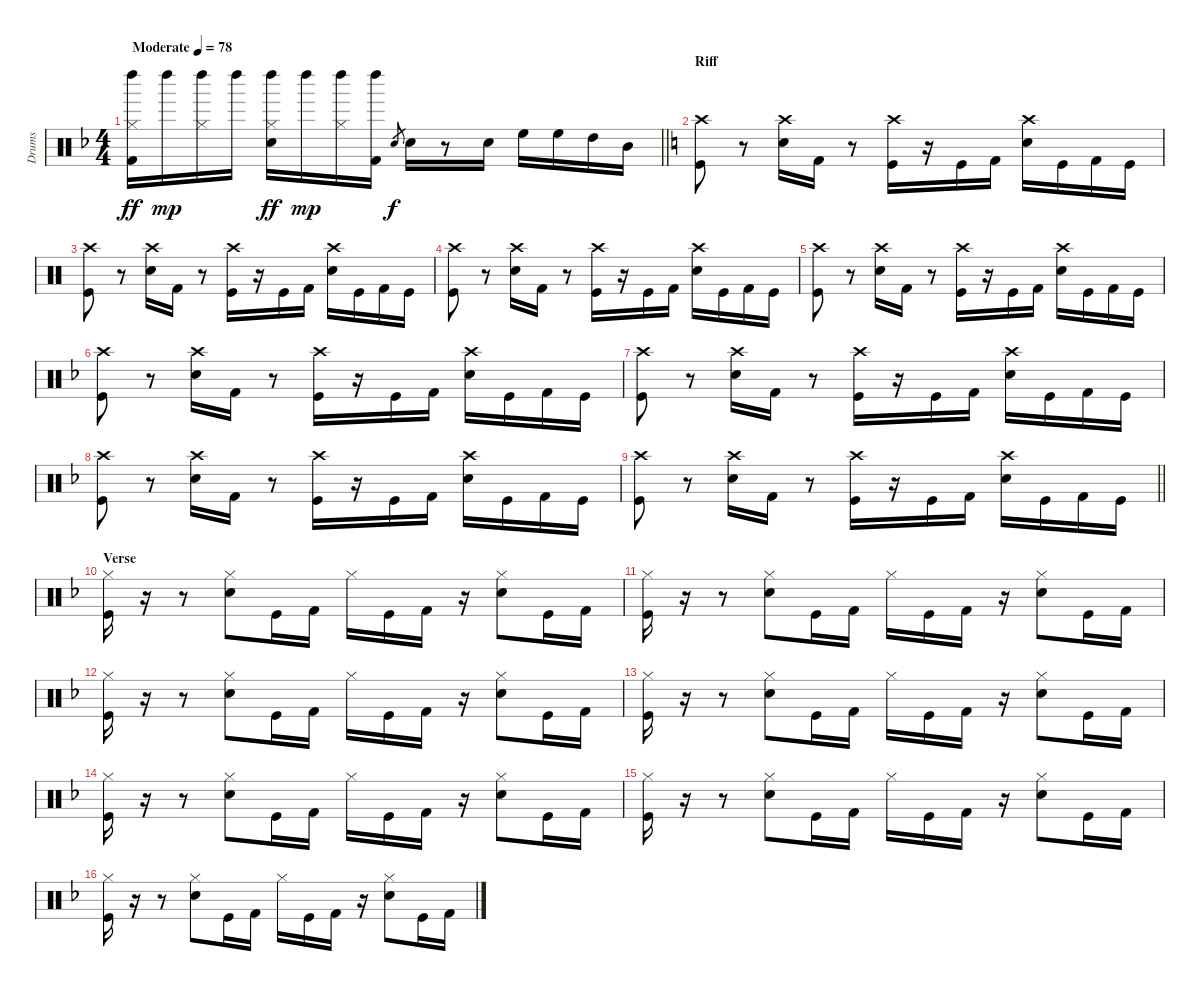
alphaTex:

\track ("Drums" "Drums") {instrument percussion}
\staff {score}
\articulation defaults
\ts (4 4)
\tempo (78 "Moderate")
\clef neutral
\barLineRight lightlight
\ks f
("Kick (hit) 2" "Hi-Hat (closed)" "Left Maraca (hit)").16{dy ff} "Left Maraca (hit)".16{dy mp} ("Hi-Hat (closed)" "Left Maraca (hit)").16 "Left Maraca (hit)".16 ("Snare (hit) 2" "Hi-Hat (closed)" "Left Maraca (hit)").16{dy ff} "Left Maraca (hit)".16{dy mp} ("Hi-Hat (closed)" "Left Maraca (hit)").16 ("Kick (hit) 2" "Left Maraca (hit)").16 "Snare (hit) 2".8{gr dy f} "Snare (hit) 2".16 r.8 "Snare (hit) 2".16 "High Floor Tom (hit)".16 "High Floor Tom (hit)".16 "High Tom (hit)".16 "Mid Tom (hit)".16 |
\section ("" "Riff")
\ks c
("Crash high (hit)" "Kick (hit)").8 r.8 ("Crash high (hit)" "Snare (hit) 2").16 "Kick (hit) 2".16 r.8 ("Crash high (hit)" "Kick (hit)").16 r.16 "Kick (hit)".16 "Kick (hit) 2".16 ("Crash high (hit)" "Snare (hit) 2").16 "Kick (hit)".16 "Kick (hit) 2".16 "Kick (hit)".16 |
("Crash high (hit)" "Kick (hit)").8 r.8 ("Crash high (hit)" "Snare (hit) 2").16 "Kick (hit) 2".16 r.8 ("Crash high (hit)" "Kick (hit)").16 r.16 "Kick (hit)".16 "Kick (hit) 2".16 ("Crash high (hit)" "Snare (hit) 2").16 "Kick (hit)".16 "Kick (hit) 2".16 "Kick (hit)".16 |
("Crash high (hit)" "Kick (hit)").8 r.8 ("Crash high (hit)" "Snare (hit) 2").16 "Kick (hit) 2".16 r.8 ("Crash high (hit)" "Kick (hit)").16 r.16 "Kick (hit)".16 "Kick (hit) 2".16 ("Crash high (hit)" "Snare (hit) 2").16 "Kick (hit)".16 "Kick (hit) 2".16 "Kick (hit)".16 |
("Crash high (hit)" "Kick (hit)").8 r.8 ("Crash high (hit)" "Snare (hit) 2").16 "Kick (hit) 2".16 r.8 ("Crash high (hit)" "Kick (hit)").16 r.16 "Kick (hit)".16 "Kick (hit) 2".16 ("Crash high (hit)" "Snare (hit) 2").16 "Kick (hit)".16 "Kick (hit) 2".16 "Kick (hit)".16 |
\ks f
("Crash high (hit)" "Kick (hit)").8 r.8 ("Crash high (hit)" "Snare (hit) 2").16 "Kick (hit) 2".16 r.8 ("Crash high (hit)" "Kick (hit)").16 r.16 "Kick (hit)".16 "Kick (hit) 2".16 ("Crash high (hit)" "Snare (hit) 2").16 "Kick (hit)".16 "Kick (hit) 2".16 "Kick (hit)".16 |
("Crash high (hit)" "Kick (hit)").8 r.8 ("Crash high (hit)" "Snare (hit) 2").16 "Kick (hit) 2".16 r.8 ("Crash high (hit)" "Kick (hit)").16 r.16 "Kick (hit)".16 "Kick (hit) 2".16 ("Crash high (hit)" "Snare (hit) 2").16 "Kick (hit)".16 "Kick (hit) 2".16 "Kick (hit)".16 |
("Crash high (hit)" "Kick (hit)").8 r.8 ("Crash high (hit)" "Snare (hit) 2").16 "Kick (hit) 2".16 r.8 ("Crash high (hit)" "Kick (hit)").16 r.16 "Kick (hit)".16 "Kick (hit) 2".16 ("Crash high (hit)" "Snare (hit) 2").16 "Kick (hit)".16 "Kick (hit) 2".16 "Kick (hit)".16 |
\barLineRight lightlight
("Crash high (hit)" "Kick (hit)").8 r.8 ("Crash high (hit)" "Snare (hit) 2").16 "Kick (hit) 2".16 r.8 ("Crash high (hit)" "Kick (hit)").16 r.16 "Kick (hit)".16 "Kick (hit) 2".16 ("Crash high (hit)" "Snare (hit) 2").16 "Kick (hit)".16 "Kick (hit) 2".16 "Kick (hit)".16 |
\section ("" "Verse")
("Hi-Hat (closed)" "Kick (hit)").16 r.16 r.8 ("Hi-Hat (closed)" "Snare (hit) 2").8 "Kick (hit)".16 "Kick (hit) 2".16 "Hi-Hat (closed)".16 "Kick (hit)".16 "Kick (hit) 2".16 r.16 ("Hi-Hat (closed)" "Snare (hit) 2").8 "Kick (hit)".16 "Kick (hit) 2".16 |
("Hi-Hat (closed)" "Kick (hit)").16 r.16 r.8 ("Hi-Hat (closed)" "Snare (hit) 2").8 "Kick (hit)".16 "Kick (hit) 2".16 "Hi-Hat (closed)".16 "Kick (hit)".16 "Kick (hit) 2".16 r.16 ("Hi-Hat (closed)" "Snare (hit) 2").8 "Kick (hit)".16 "Kick (hit) 2".16 |
("Hi-Hat (closed)" "Kick (hit)").16 r.16 r.8 ("Hi-Hat (closed)" "Snare (hit) 2").8 "Kick (hit)".16 "Kick (hit) 2".16 "Hi-Hat (closed)".16 "Kick (hit)".16 "Kick (hit) 2".16 r.16 ("Hi-Hat (closed)" "Snare (hit) 2").8 "Kick (hit)".16 "Kick (hit) 2".16 |
("Hi-Hat (closed)" "Kick (hit)").16 r.16 r.8 ("Hi-Hat (closed)" "Snare (hit) 2").8 "Kick (hit)".16 "Kick (hit) 2".16 "Hi-Hat (closed)".16 "Kick (hit)".16 "Kick (hit) 2".16 r.16 ("Hi-Hat (closed)" "Snare (hit) 2").8 "Kick (hit)".16 "Kick (hit) 2".16 |
("Hi-Hat (closed)" "Kick (hit)").16 r.16 r.8 ("Hi-Hat (closed)" "Snare (hit) 2").8 "Kick (hit)".16 "Kick (hit) 2".16 "Hi-Hat (closed)".16 "Kick (hit)".16 "Kick (hit) 2".16 r.16 ("Hi-Hat (closed)" "Snare (hit) 2").8 "Kick (hit)".16 "Kick (hit) 2".16 |
("Hi-Hat (closed)" "Kick (hit)").16 r.16 r.8 ("Hi-Hat (closed)" "Snare (hit) 2").8 "Kick (hit)".16 "Kick (hit) 2".16 "Hi-Hat (closed)".16 "Kick (hit)".16 "Kick (hit) 2".16 r.16 ("Hi-Hat (closed)" "Snare (hit) 2").8 "Kick (hit)".16 "Kick (hit) 2".16 |
("Hi-Hat (closed)" "Kick (hit)").16 r.16 r.8 ("Hi-Hat (closed)" "Snare (hit) 2").8 "Kick (hit)".16 "Kick (hit) 2".16 "Hi-Hat (closed)".16 "Kick (hit)".16 "Kick (hit) 2".16 r.16 ("Hi-Hat (closed)" "Snare (hit) 2").8 "Kick (hit)".16 "Kick (hit) 2".16
